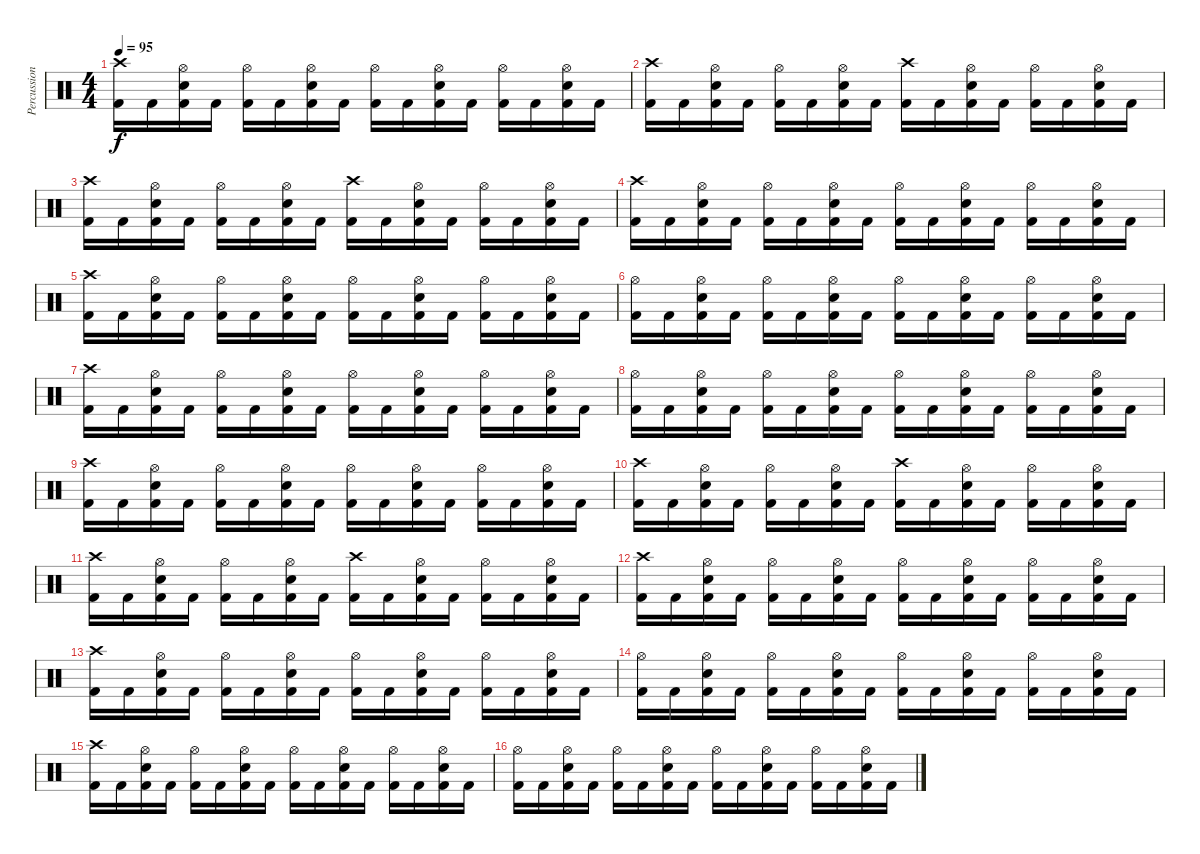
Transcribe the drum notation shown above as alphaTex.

\track ("Percussion" "Percussion") {instrument percussion}
\staff {score}
\articulation defaults
\ts (4 4)
\tempo 95
\clef neutral
\ks c
("Crash high (hit)" "Kick (hit) 2").16{dy f} "Kick (hit) 2".16 ("Hi-Hat (open)" "Electric Snare (hit)" "Kick (hit) 2").16 "Kick (hit) 2".16 ("Hi-Hat (open)" "Kick (hit) 2").16 "Kick (hit) 2".16 ("Hi-Hat (open)" "Electric Snare (hit)" "Kick (hit) 2").16 "Kick (hit) 2".16 ("Hi-Hat (open)" "Kick (hit) 2").16 "Kick (hit) 2".16 ("Hi-Hat (open)" "Electric Snare (hit)" "Kick (hit) 2").16 "Kick (hit) 2".16 ("Hi-Hat (open)" "Kick (hit) 2").16 "Kick (hit) 2".16 ("Hi-Hat (open)" "Electric Snare (hit)" "Kick (hit) 2").16 "Kick (hit) 2".16 |
("Crash high (hit)" "Kick (hit) 2").16 "Kick (hit) 2".16 ("Hi-Hat (open)" "Electric Snare (hit)" "Kick (hit) 2").16 "Kick (hit) 2".16 ("Hi-Hat (open)" "Kick (hit) 2").16 "Kick (hit) 2".16 ("Hi-Hat (open)" "Electric Snare (hit)" "Kick (hit) 2").16 "Kick (hit) 2".16 ("Crash high (hit)" "Kick (hit) 2").16 "Kick (hit) 2".16 ("Hi-Hat (open)" "Electric Snare (hit)" "Kick (hit) 2").16 "Kick (hit) 2".16 ("Hi-Hat (open)" "Kick (hit) 2").16 "Kick (hit) 2".16 ("Hi-Hat (open)" "Electric Snare (hit)" "Kick (hit) 2").16 "Kick (hit) 2".16 |
("Crash high (hit)" "Kick (hit) 2").16 "Kick (hit) 2".16 ("Hi-Hat (open)" "Electric Snare (hit)" "Kick (hit) 2").16 "Kick (hit) 2".16 ("Hi-Hat (open)" "Kick (hit) 2").16 "Kick (hit) 2".16 ("Hi-Hat (open)" "Electric Snare (hit)" "Kick (hit) 2").16 "Kick (hit) 2".16 ("Crash high (hit)" "Kick (hit) 2").16 "Kick (hit) 2".16 ("Hi-Hat (open)" "Electric Snare (hit)" "Kick (hit) 2").16 "Kick (hit) 2".16 ("Hi-Hat (open)" "Kick (hit) 2").16 "Kick (hit) 2".16 ("Hi-Hat (open)" "Electric Snare (hit)" "Kick (hit) 2").16 "Kick (hit) 2".16 |
("Crash high (hit)" "Kick (hit) 2").16 "Kick (hit) 2".16 ("Hi-Hat (open)" "Electric Snare (hit)" "Kick (hit) 2").16 "Kick (hit) 2".16 ("Hi-Hat (open)" "Kick (hit) 2").16 "Kick (hit) 2".16 ("Hi-Hat (open)" "Electric Snare (hit)" "Kick (hit) 2").16 "Kick (hit) 2".16 ("Hi-Hat (open)" "Kick (hit) 2").16 "Kick (hit) 2".16 ("Hi-Hat (open)" "Electric Snare (hit)" "Kick (hit) 2").16 "Kick (hit) 2".16 ("Hi-Hat (open)" "Kick (hit) 2").16 "Kick (hit) 2".16 ("Hi-Hat (open)" "Electric Snare (hit)" "Kick (hit) 2").16 "Kick (hit) 2".16 |
("Crash high (hit)" "Kick (hit) 2").16 "Kick (hit) 2".16 ("Hi-Hat (open)" "Electric Snare (hit)" "Kick (hit) 2").16 "Kick (hit) 2".16 ("Hi-Hat (open)" "Kick (hit) 2").16 "Kick (hit) 2".16 ("Hi-Hat (open)" "Electric Snare (hit)" "Kick (hit) 2").16 "Kick (hit) 2".16 ("Hi-Hat (open)" "Kick (hit) 2").16 "Kick (hit) 2".16 ("Hi-Hat (open)" "Electric Snare (hit)" "Kick (hit) 2").16 "Kick (hit) 2".16 ("Hi-Hat (open)" "Kick (hit) 2").16 "Kick (hit) 2".16 ("Hi-Hat (open)" "Electric Snare (hit)" "Kick (hit) 2").16 "Kick (hit) 2".16 |
("Hi-Hat (open)" "Kick (hit) 2").16 "Kick (hit) 2".16 ("Hi-Hat (open)" "Electric Snare (hit)" "Kick (hit) 2").16 "Kick (hit) 2".16 ("Hi-Hat (open)" "Kick (hit) 2").16 "Kick (hit) 2".16 ("Hi-Hat (open)" "Electric Snare (hit)" "Kick (hit) 2").16 "Kick (hit) 2".16 ("Hi-Hat (open)" "Kick (hit) 2").16 "Kick (hit) 2".16 ("Hi-Hat (open)" "Electric Snare (hit)" "Kick (hit) 2").16 "Kick (hit) 2".16 ("Hi-Hat (open)" "Kick (hit) 2").16 "Kick (hit) 2".16 ("Hi-Hat (open)" "Electric Snare (hit)" "Kick (hit) 2").16 "Kick (hit) 2".16 |
("Crash high (hit)" "Kick (hit) 2").16 "Kick (hit) 2".16 ("Hi-Hat (open)" "Electric Snare (hit)" "Kick (hit) 2").16 "Kick (hit) 2".16 ("Hi-Hat (open)" "Kick (hit) 2").16 "Kick (hit) 2".16 ("Hi-Hat (open)" "Electric Snare (hit)" "Kick (hit) 2").16 "Kick (hit) 2".16 ("Hi-Hat (open)" "Kick (hit) 2").16 "Kick (hit) 2".16 ("Hi-Hat (open)" "Electric Snare (hit)" "Kick (hit) 2").16 "Kick (hit) 2".16 ("Hi-Hat (open)" "Kick (hit) 2").16 "Kick (hit) 2".16 ("Hi-Hat (open)" "Electric Snare (hit)" "Kick (hit) 2").16 "Kick (hit) 2".16 |
("Hi-Hat (open)" "Kick (hit) 2").16 "Kick (hit) 2".16 ("Hi-Hat (open)" "Electric Snare (hit)" "Kick (hit) 2").16 "Kick (hit) 2".16 ("Hi-Hat (open)" "Kick (hit) 2").16 "Kick (hit) 2".16 ("Hi-Hat (open)" "Electric Snare (hit)" "Kick (hit) 2").16 "Kick (hit) 2".16 ("Hi-Hat (open)" "Kick (hit) 2").16 "Kick (hit) 2".16 ("Hi-Hat (open)" "Electric Snare (hit)" "Kick (hit) 2").16 "Kick (hit) 2".16 ("Hi-Hat (open)" "Kick (hit) 2").16 "Kick (hit) 2".16 ("Hi-Hat (open)" "Electric Snare (hit)" "Kick (hit) 2").16 "Kick (hit) 2".16 |
("Crash high (hit)" "Kick (hit) 2").16 "Kick (hit) 2".16 ("Hi-Hat (open)" "Electric Snare (hit)" "Kick (hit) 2").16 "Kick (hit) 2".16 ("Hi-Hat (open)" "Kick (hit) 2").16 "Kick (hit) 2".16 ("Hi-Hat (open)" "Electric Snare (hit)" "Kick (hit) 2").16 "Kick (hit) 2".16 ("Hi-Hat (open)" "Kick (hit) 2").16 "Kick (hit) 2".16 ("Hi-Hat (open)" "Electric Snare (hit)" "Kick (hit) 2").16 "Kick (hit) 2".16 ("Hi-Hat (open)" "Kick (hit) 2").16 "Kick (hit) 2".16 ("Hi-Hat (open)" "Electric Snare (hit)" "Kick (hit) 2").16 "Kick (hit) 2".16 |
("Crash high (hit)" "Kick (hit) 2").16 "Kick (hit) 2".16 ("Hi-Hat (open)" "Electric Snare (hit)" "Kick (hit) 2").16 "Kick (hit) 2".16 ("Hi-Hat (open)" "Kick (hit) 2").16 "Kick (hit) 2".16 ("Hi-Hat (open)" "Electric Snare (hit)" "Kick (hit) 2").16 "Kick (hit) 2".16 ("Crash high (hit)" "Kick (hit) 2").16 "Kick (hit) 2".16 ("Hi-Hat (open)" "Electric Snare (hit)" "Kick (hit) 2").16 "Kick (hit) 2".16 ("Hi-Hat (open)" "Kick (hit) 2").16 "Kick (hit) 2".16 ("Hi-Hat (open)" "Electric Snare (hit)" "Kick (hit) 2").16 "Kick (hit) 2".16 |
("Crash high (hit)" "Kick (hit) 2").16 "Kick (hit) 2".16 ("Hi-Hat (open)" "Electric Snare (hit)" "Kick (hit) 2").16 "Kick (hit) 2".16 ("Hi-Hat (open)" "Kick (hit) 2").16 "Kick (hit) 2".16 ("Hi-Hat (open)" "Electric Snare (hit)" "Kick (hit) 2").16 "Kick (hit) 2".16 ("Crash high (hit)" "Kick (hit) 2").16 "Kick (hit) 2".16 ("Hi-Hat (open)" "Electric Snare (hit)" "Kick (hit) 2").16 "Kick (hit) 2".16 ("Hi-Hat (open)" "Kick (hit) 2").16 "Kick (hit) 2".16 ("Hi-Hat (open)" "Electric Snare (hit)" "Kick (hit) 2").16 "Kick (hit) 2".16 |
("Crash high (hit)" "Kick (hit) 2").16 "Kick (hit) 2".16 ("Hi-Hat (open)" "Electric Snare (hit)" "Kick (hit) 2").16 "Kick (hit) 2".16 ("Hi-Hat (open)" "Kick (hit) 2").16 "Kick (hit) 2".16 ("Hi-Hat (open)" "Electric Snare (hit)" "Kick (hit) 2").16 "Kick (hit) 2".16 ("Hi-Hat (open)" "Kick (hit) 2").16 "Kick (hit) 2".16 ("Hi-Hat (open)" "Electric Snare (hit)" "Kick (hit) 2").16 "Kick (hit) 2".16 ("Hi-Hat (open)" "Kick (hit) 2").16 "Kick (hit) 2".16 ("Hi-Hat (open)" "Electric Snare (hit)" "Kick (hit) 2").16 "Kick (hit) 2".16 |
("Crash high (hit)" "Kick (hit) 2").16 "Kick (hit) 2".16 ("Hi-Hat (open)" "Electric Snare (hit)" "Kick (hit) 2").16 "Kick (hit) 2".16 ("Hi-Hat (open)" "Kick (hit) 2").16 "Kick (hit) 2".16 ("Hi-Hat (open)" "Electric Snare (hit)" "Kick (hit) 2").16 "Kick (hit) 2".16 ("Hi-Hat (open)" "Kick (hit) 2").16 "Kick (hit) 2".16 ("Hi-Hat (open)" "Electric Snare (hit)" "Kick (hit) 2").16 "Kick (hit) 2".16 ("Hi-Hat (open)" "Kick (hit) 2").16 "Kick (hit) 2".16 ("Hi-Hat (open)" "Electric Snare (hit)" "Kick (hit) 2").16 "Kick (hit) 2".16 |
("Hi-Hat (open)" "Kick (hit) 2").16 "Kick (hit) 2".16 ("Hi-Hat (open)" "Electric Snare (hit)" "Kick (hit) 2").16 "Kick (hit) 2".16 ("Hi-Hat (open)" "Kick (hit) 2").16 "Kick (hit) 2".16 ("Hi-Hat (open)" "Electric Snare (hit)" "Kick (hit) 2").16 "Kick (hit) 2".16 ("Hi-Hat (open)" "Kick (hit) 2").16 "Kick (hit) 2".16 ("Hi-Hat (open)" "Electric Snare (hit)" "Kick (hit) 2").16 "Kick (hit) 2".16 ("Hi-Hat (open)" "Kick (hit) 2").16 "Kick (hit) 2".16 ("Hi-Hat (open)" "Electric Snare (hit)" "Kick (hit) 2").16 "Kick (hit) 2".16 |
("Crash high (hit)" "Kick (hit) 2").16 "Kick (hit) 2".16 ("Hi-Hat (open)" "Electric Snare (hit)" "Kick (hit) 2").16 "Kick (hit) 2".16 ("Hi-Hat (open)" "Kick (hit) 2").16 "Kick (hit) 2".16 ("Hi-Hat (open)" "Electric Snare (hit)" "Kick (hit) 2").16 "Kick (hit) 2".16 ("Hi-Hat (open)" "Kick (hit) 2").16 "Kick (hit) 2".16 ("Hi-Hat (open)" "Electric Snare (hit)" "Kick (hit) 2").16 "Kick (hit) 2".16 ("Hi-Hat (open)" "Kick (hit) 2").16 "Kick (hit) 2".16 ("Hi-Hat (open)" "Electric Snare (hit)" "Kick (hit) 2").16 "Kick (hit) 2".16 |
("Hi-Hat (open)" "Kick (hit) 2").16 "Kick (hit) 2".16 ("Hi-Hat (open)" "Electric Snare (hit)" "Kick (hit) 2").16 "Kick (hit) 2".16 ("Hi-Hat (open)" "Kick (hit) 2").16 "Kick (hit) 2".16 ("Hi-Hat (open)" "Electric Snare (hit)" "Kick (hit) 2").16 "Kick (hit) 2".16 ("Hi-Hat (open)" "Kick (hit) 2").16 "Kick (hit) 2".16 ("Hi-Hat (open)" "Electric Snare (hit)" "Kick (hit) 2").16 "Kick (hit) 2".16 ("Hi-Hat (open)" "Kick (hit) 2").16 "Kick (hit) 2".16 ("Hi-Hat (open)" "Electric Snare (hit)" "Kick (hit) 2").16 "Kick (hit) 2".16
